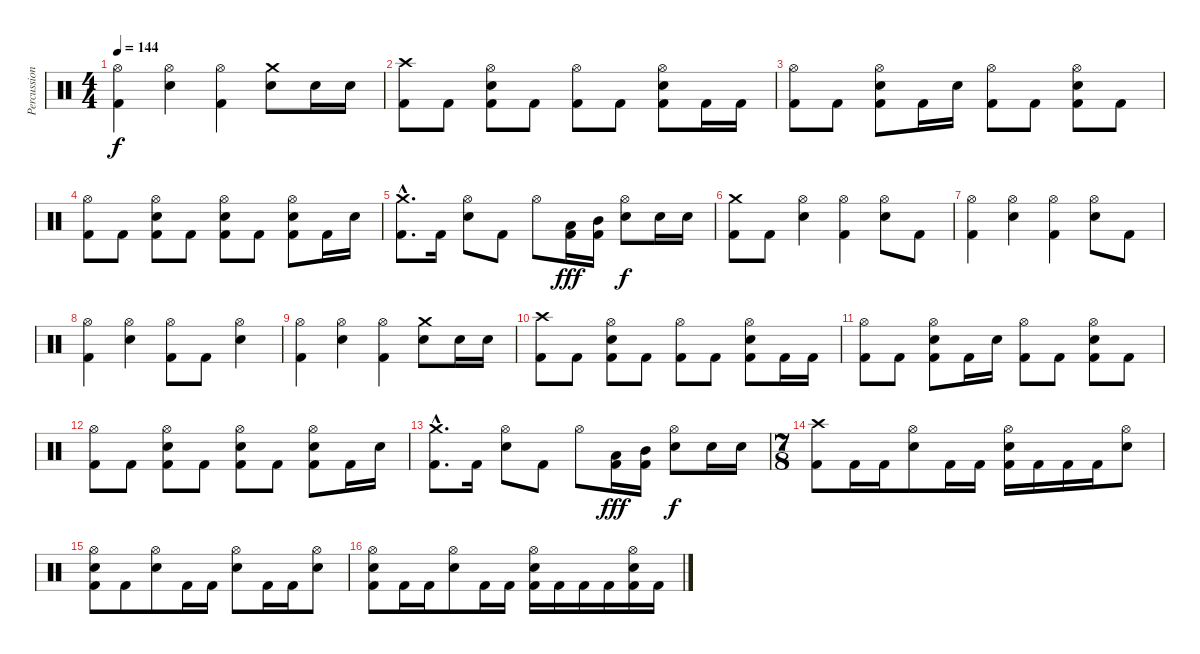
\track ("Percussion" "Percussion") {instrument percussion}
\staff {score}
\articulation defaults
\ts (4 4)
\tempo 144
\clef neutral
\ks c
("Hi-Hat (open)" "Kick (hit) 2").4{dy f} ("Hi-Hat (open)" "Snare (hit) 2").4 ("Hi-Hat (open)" "Kick (hit) 2").4 ("Crash medium (hit)" "Snare (hit) 2").8 "Snare (hit) 2".16 "Snare (hit) 2".16 |
("Crash high (hit)" "Kick (hit) 2").8 "Kick (hit) 2".8 ("Hi-Hat (open)" "Snare (hit) 2" "Kick (hit) 2").8 "Kick (hit) 2".8 ("Hi-Hat (open)" "Kick (hit) 2").8 "Kick (hit) 2".8 ("Hi-Hat (open)" "Snare (hit) 2" "Kick (hit) 2").8 "Kick (hit) 2".16 "Kick (hit) 2".16 |
("Hi-Hat (open)" "Kick (hit) 2").8 "Kick (hit) 2".8 ("Hi-Hat (open)" "Snare (hit) 2" "Kick (hit) 2").8 "Kick (hit) 2".16 "Snare (hit) 2".16 ("Hi-Hat (open)" "Kick (hit) 2").8 "Kick (hit) 2".8 ("Hi-Hat (open)" "Snare (hit) 2" "Kick (hit) 2").8 "Kick (hit) 2".8 |
("Hi-Hat (open)" "Kick (hit) 2").8 "Kick (hit) 2".8 ("Hi-Hat (open)" "Snare (hit) 2" "Kick (hit) 2").8 "Kick (hit) 2".8 ("Hi-Hat (open)" "Snare (hit) 2" "Kick (hit) 2").8 "Kick (hit) 2".8 ("Hi-Hat (open)" "Snare (hit) 2" "Kick (hit) 2").8 "Kick (hit) 2".16 "Snare (hit) 2".16 |
("Crash medium (hit)"{hac} "Kick (hit) 2"{hac}).8{d} "Kick (hit) 2".16 ("Hi-Hat (open)" "Snare (hit) 2").8 "Kick (hit) 2".8 "Hi-Hat (open)".8 ("Low Tom (hit)" "Kick (hit) 2").16{dy fff} ("Mid Tom (hit)" "Kick (hit) 2").16 ("Hi-Hat (open)" "Snare (hit) 2").8{dy f} "Snare (hit) 2".16 "Snare (hit) 2".16 |
\section ("" "")
("Crash medium (hit)" "Kick (hit) 2").8 "Kick (hit) 2".8 ("Hi-Hat (open)" "Snare (hit) 2").4 ("Hi-Hat (open)" "Kick (hit) 2").4 ("Hi-Hat (open)" "Snare (hit) 2").8 "Kick (hit) 2".8 |
("Hi-Hat (open)" "Kick (hit) 2").4 ("Hi-Hat (open)" "Snare (hit) 2").4 ("Hi-Hat (open)" "Kick (hit) 2").4 ("Hi-Hat (open)" "Snare (hit) 2").8 "Kick (hit) 2".8 |
("Hi-Hat (open)" "Kick (hit) 2").4 ("Hi-Hat (open)" "Snare (hit) 2").4 ("Hi-Hat (open)" "Kick (hit) 2").8 "Kick (hit) 2".8 ("Hi-Hat (open)" "Snare (hit) 2").4 |
("Hi-Hat (open)" "Kick (hit) 2").4 ("Hi-Hat (open)" "Snare (hit) 2").4 ("Hi-Hat (open)" "Kick (hit) 2").4 ("Crash medium (hit)" "Snare (hit) 2").8 "Snare (hit) 2".16 "Snare (hit) 2".16 |
("Crash high (hit)" "Kick (hit) 2").8 "Kick (hit) 2".8 ("Hi-Hat (open)" "Snare (hit) 2" "Kick (hit) 2").8 "Kick (hit) 2".8 ("Hi-Hat (open)" "Kick (hit) 2").8 "Kick (hit) 2".8 ("Hi-Hat (open)" "Snare (hit) 2" "Kick (hit) 2").8 "Kick (hit) 2".16 "Kick (hit) 2".16 |
("Hi-Hat (open)" "Kick (hit) 2").8 "Kick (hit) 2".8 ("Hi-Hat (open)" "Snare (hit) 2" "Kick (hit) 2").8 "Kick (hit) 2".16 "Snare (hit) 2".16 ("Hi-Hat (open)" "Kick (hit) 2").8 "Kick (hit) 2".8 ("Hi-Hat (open)" "Snare (hit) 2" "Kick (hit) 2").8 "Kick (hit) 2".8 |
("Hi-Hat (open)" "Kick (hit) 2").8 "Kick (hit) 2".8 ("Hi-Hat (open)" "Snare (hit) 2" "Kick (hit) 2").8 "Kick (hit) 2".8 ("Hi-Hat (open)" "Snare (hit) 2" "Kick (hit) 2").8 "Kick (hit) 2".8 ("Hi-Hat (open)" "Snare (hit) 2" "Kick (hit) 2").8 "Kick (hit) 2".16 "Snare (hit) 2".16 |
("Crash medium (hit)"{hac} "Kick (hit) 2"{hac}).8{d} "Kick (hit) 2".16 ("Hi-Hat (open)" "Snare (hit) 2").8 "Kick (hit) 2".8 "Hi-Hat (open)".8 ("Low Tom (hit)" "Kick (hit) 2").16{dy fff} ("Mid Tom (hit)" "Kick (hit) 2").16 ("Hi-Hat (open)" "Snare (hit) 2").8{dy f} "Snare (hit) 2".16 "Snare (hit) 2".16 |
\ts (7 8)
\section ("" "")
("Crash high (hit)" "Kick (hit) 2").8 "Kick (hit) 2".16 "Kick (hit) 2".16 ("Hi-Hat (open)" "Snare (hit) 2").8 "Kick (hit) 2".16 "Kick (hit) 2".16 ("Hi-Hat (open)" "Snare (hit) 2" "Kick (hit) 2").16 "Kick (hit) 2".16 "Kick (hit) 2".16 "Kick (hit) 2".16 ("Hi-Hat (open)" "Snare (hit) 2").8 |
("Hi-Hat (open)" "Snare (hit) 2" "Kick (hit) 2").8 "Kick (hit) 2".8 ("Hi-Hat (open)" "Snare (hit) 2").8 "Kick (hit) 2".16 "Kick (hit) 2".16 ("Hi-Hat (open)" "Snare (hit) 2").8 "Kick (hit) 2".16 "Kick (hit) 2".16 ("Hi-Hat (open)" "Snare (hit) 2").8 |
("Hi-Hat (open)" "Snare (hit) 2" "Kick (hit) 2").8 "Kick (hit) 2".16 "Kick (hit) 2".16 ("Hi-Hat (open)" "Snare (hit) 2").8 "Kick (hit) 2".16 "Kick (hit) 2".16 ("Hi-Hat (open)" "Snare (hit) 2" "Kick (hit) 2").16 "Kick (hit) 2".16 "Kick (hit) 2".16 "Kick (hit) 2".16 ("Hi-Hat (open)" "Snare (hit) 2" "Kick (hit) 2").16 "Kick (hit) 2".16
